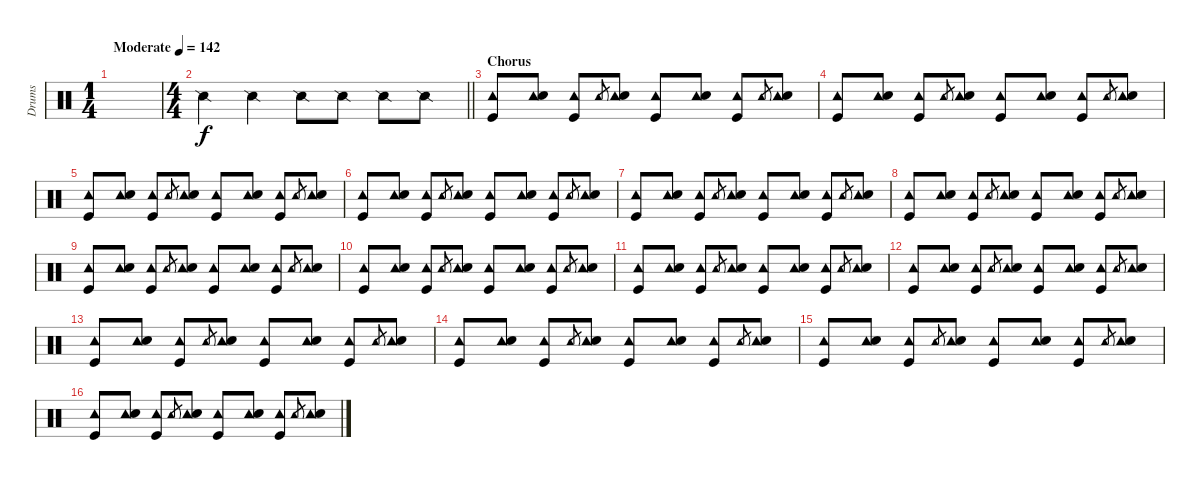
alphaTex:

\track ("Drums" "Drums") {instrument percussion}
\staff {score}
\articulation defaults
\ts (1 4)
\tempo (142 "Moderate")
\clef neutral
\ks c
|
\ts (4 4)
\barLineRight lightlight "Snare (side stick) 2".4 "Snare (side stick) 2".4 "Snare (side stick) 2".8 "Snare (side stick) 2".8 "Snare (side stick) 2".8 "Snare (side stick) 2".8
|
\section ("" "Chorus")
("Tambourine (hit)" "Kick (hit)").8 ("Tambourine (hit)" "Snare (hit) 2").8 ("Tambourine (hit)" "Kick (hit)").8 "Tambourine (hit)".8{gr} ("Tambourine (hit)" "Snare (hit) 2").8 ("Tambourine (hit)" "Kick (hit)").8 ("Tambourine (hit)" "Snare (hit) 2").8 ("Tambourine (hit)" "Kick (hit)").8 "Tambourine (hit)".8{gr} ("Tambourine (hit)" "Snare (hit) 2").8 |
("Tambourine (hit)" "Kick (hit)").8 ("Tambourine (hit)" "Snare (hit) 2").8 ("Tambourine (hit)" "Kick (hit)").8 "Tambourine (hit)".8{gr} ("Tambourine (hit)" "Snare (hit) 2").8 ("Tambourine (hit)" "Kick (hit)").8 ("Tambourine (hit)" "Snare (hit) 2").8 ("Tambourine (hit)" "Kick (hit)").8 "Tambourine (hit)".8{gr} ("Tambourine (hit)" "Snare (hit) 2").8 |
("Tambourine (hit)" "Kick (hit)").8 ("Tambourine (hit)" "Snare (hit) 2").8 ("Tambourine (hit)" "Kick (hit)").8 "Tambourine (hit)".8{gr} ("Tambourine (hit)" "Snare (hit) 2").8 ("Tambourine (hit)" "Kick (hit)").8 ("Tambourine (hit)" "Snare (hit) 2").8 ("Tambourine (hit)" "Kick (hit)").8 "Tambourine (hit)".8{gr} ("Tambourine (hit)" "Snare (hit) 2").8 |
("Tambourine (hit)" "Kick (hit)").8 ("Tambourine (hit)" "Snare (hit) 2").8 ("Tambourine (hit)" "Kick (hit)").8 "Tambourine (hit)".8{gr} ("Tambourine (hit)" "Snare (hit) 2").8 ("Tambourine (hit)" "Kick (hit)").8 ("Tambourine (hit)" "Snare (hit) 2").8 ("Tambourine (hit)" "Kick (hit)").8 "Tambourine (hit)".8{gr} ("Tambourine (hit)" "Snare (hit) 2").8 |
("Tambourine (hit)" "Kick (hit)").8 ("Tambourine (hit)" "Snare (hit) 2").8 ("Tambourine (hit)" "Kick (hit)").8 "Tambourine (hit)".8{gr} ("Tambourine (hit)" "Snare (hit) 2").8 ("Tambourine (hit)" "Kick (hit)").8 ("Tambourine (hit)" "Snare (hit) 2").8 ("Tambourine (hit)" "Kick (hit)").8 "Tambourine (hit)".8{gr} ("Tambourine (hit)" "Snare (hit) 2").8 |
("Tambourine (hit)" "Kick (hit)").8 ("Tambourine (hit)" "Snare (hit) 2").8 ("Tambourine (hit)" "Kick (hit)").8 "Tambourine (hit)".8{gr} ("Tambourine (hit)" "Snare (hit) 2").8 ("Tambourine (hit)" "Kick (hit)").8 ("Tambourine (hit)" "Snare (hit) 2").8 ("Tambourine (hit)" "Kick (hit)").8 "Tambourine (hit)".8{gr} ("Tambourine (hit)" "Snare (hit) 2").8 |
("Tambourine (hit)" "Kick (hit)").8 ("Tambourine (hit)" "Snare (hit) 2").8 ("Tambourine (hit)" "Kick (hit)").8 "Tambourine (hit)".8{gr} ("Tambourine (hit)" "Snare (hit) 2").8 ("Tambourine (hit)" "Kick (hit)").8 ("Tambourine (hit)" "Snare (hit) 2").8 ("Tambourine (hit)" "Kick (hit)").8 "Tambourine (hit)".8{gr} ("Tambourine (hit)" "Snare (hit) 2").8 |
("Tambourine (hit)" "Kick (hit)").8 ("Tambourine (hit)" "Snare (hit) 2").8 ("Tambourine (hit)" "Kick (hit)").8 "Tambourine (hit)".8{gr} ("Tambourine (hit)" "Snare (hit) 2").8 ("Tambourine (hit)" "Kick (hit)").8 ("Tambourine (hit)" "Snare (hit) 2").8 ("Tambourine (hit)" "Kick (hit)").8 "Tambourine (hit)".8{gr} ("Tambourine (hit)" "Snare (hit) 2").8 |
("Tambourine (hit)" "Kick (hit)").8 ("Tambourine (hit)" "Snare (hit) 2").8 ("Tambourine (hit)" "Kick (hit)").8 "Tambourine (hit)".8{gr} ("Tambourine (hit)" "Snare (hit) 2").8 ("Tambourine (hit)" "Kick (hit)").8 ("Tambourine (hit)" "Snare (hit) 2").8 ("Tambourine (hit)" "Kick (hit)").8 "Tambourine (hit)".8{gr} ("Tambourine (hit)" "Snare (hit) 2").8 |
("Tambourine (hit)" "Kick (hit)").8 ("Tambourine (hit)" "Snare (hit) 2").8 ("Tambourine (hit)" "Kick (hit)").8 "Tambourine (hit)".8{gr} ("Tambourine (hit)" "Snare (hit) 2").8 ("Tambourine (hit)" "Kick (hit)").8 ("Tambourine (hit)" "Snare (hit) 2").8 ("Tambourine (hit)" "Kick (hit)").8 "Tambourine (hit)".8{gr} ("Tambourine (hit)" "Snare (hit) 2").8 |
("Tambourine (hit)" "Kick (hit)").8 ("Tambourine (hit)" "Snare (hit) 2").8 ("Tambourine (hit)" "Kick (hit)").8 "Tambourine (hit)".8{gr} ("Tambourine (hit)" "Snare (hit) 2").8 ("Tambourine (hit)" "Kick (hit)").8 ("Tambourine (hit)" "Snare (hit) 2").8 ("Tambourine (hit)" "Kick (hit)").8 "Tambourine (hit)".8{gr} ("Tambourine (hit)" "Snare (hit) 2").8 |
("Tambourine (hit)" "Kick (hit)").8 ("Tambourine (hit)" "Snare (hit) 2").8 ("Tambourine (hit)" "Kick (hit)").8 "Tambourine (hit)".8{gr} ("Tambourine (hit)" "Snare (hit) 2").8 ("Tambourine (hit)" "Kick (hit)").8 ("Tambourine (hit)" "Snare (hit) 2").8 ("Tambourine (hit)" "Kick (hit)").8 "Tambourine (hit)".8{gr} ("Tambourine (hit)" "Snare (hit) 2").8 |
("Tambourine (hit)" "Kick (hit)").8 ("Tambourine (hit)" "Snare (hit) 2").8 ("Tambourine (hit)" "Kick (hit)").8 "Tambourine (hit)".8{gr} ("Tambourine (hit)" "Snare (hit) 2").8 ("Tambourine (hit)" "Kick (hit)").8 ("Tambourine (hit)" "Snare (hit) 2").8 ("Tambourine (hit)" "Kick (hit)").8 "Tambourine (hit)".8{gr} ("Tambourine (hit)" "Snare (hit) 2").8 |
("Tambourine (hit)" "Kick (hit)").8 ("Tambourine (hit)" "Snare (hit) 2").8 ("Tambourine (hit)" "Kick (hit)").8 "Tambourine (hit)".8{gr} ("Tambourine (hit)" "Snare (hit) 2").8 ("Tambourine (hit)" "Kick (hit)").8 ("Tambourine (hit)" "Snare (hit) 2").8 ("Tambourine (hit)" "Kick (hit)").8 "Tambourine (hit)".8{gr} ("Tambourine (hit)" "Snare (hit) 2").8
